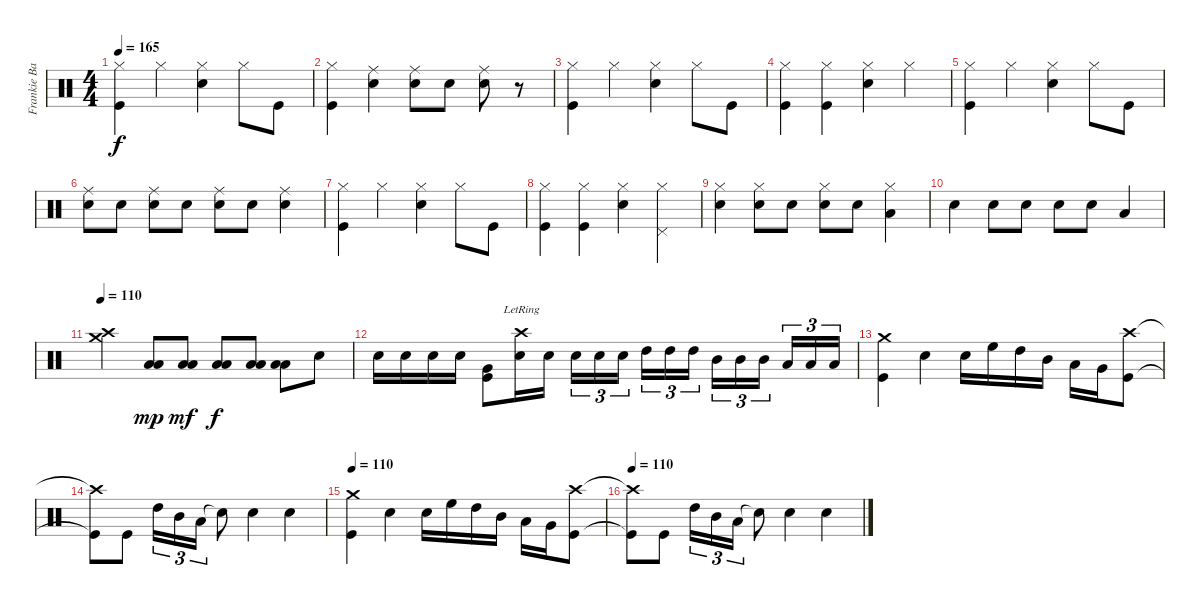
\track ("Frankie Banali/Drums" "Frankie Ba") {instrument percussion}
\staff {score}
\articulation defaults
\ts (4 4)
\tempo 165
\clef neutral
\ks c
("Kick (hit)" "Hi-Hat (closed)").4{dy f} "Hi-Hat (closed)".4 ("Snare (hit) 2" "Hi-Hat (closed)").4 "Hi-Hat (closed)".8 "Kick (hit)".8 |
("Kick (hit)" "Hi-Hat (closed)").4 ("Snare (hit) 2" "Ride (middle)").4 ("Snare (hit) 2" "Ride (middle)").8 "Snare (hit) 2".8 ("Snare (hit) 2" "Ride (middle)").8 r.8 |
("Kick (hit)" "Hi-Hat (closed)").4 "Hi-Hat (closed)".4 ("Snare (hit) 2" "Hi-Hat (closed)").4 "Hi-Hat (closed)".8 "Kick (hit)".8 |
("Kick (hit)" "Hi-Hat (closed)").4 ("Kick (hit)" "Hi-Hat (closed)").4 ("Snare (hit) 2" "Hi-Hat (closed)").4 "Hi-Hat (closed)".4 |
("Kick (hit)" "Hi-Hat (closed)").4 "Hi-Hat (closed)".4 ("Snare (hit) 2" "Hi-Hat (closed)").4 "Hi-Hat (closed)".8 "Kick (hit)".8 |
("Snare (hit) 2" "Ride (middle)").8 "Snare (hit) 2".8 ("Snare (hit) 2" "Ride (middle)").8 "Snare (hit) 2".8 ("Snare (hit) 2" "Ride (middle)").8 "Snare (hit) 2".8 ("Snare (hit) 2" "Ride (middle)").4 |
("Kick (hit)" "Hi-Hat (closed)").4 "Hi-Hat (closed)".4 ("Snare (hit) 2" "Hi-Hat (closed)").4 "Hi-Hat (closed)".8 "Kick (hit)".8 |
("Kick (hit)" "Hi-Hat (closed)").4 ("Kick (hit)" "Hi-Hat (closed)").4 ("Snare (hit) 2" "Hi-Hat (closed)").4 ("Pedal Hi-Hat (hit)" "Hi-Hat (closed)").4 |
("Snare (hit) 2" "Hi-Hat (closed)").4 ("Snare (hit) 2" "Hi-Hat (closed)").8 "Snare (hit) 2".8 ("Snare (hit) 2" "Hi-Hat (closed)").8 "Snare (hit) 2".8 ("Low Tom (hit)" "Hi-Hat (closed)").4 |
"Snare (hit) 2".4 "Snare (hit) 2".8 "Snare (hit) 2".8 "Snare (hit) 2".8 "Snare (hit) 2".8 "Low Tom (hit)".4 |
\tempo 110
("Crash high (hit)" "Crash medium (hit)").4 ("Low Tom (hit)" "Low Tom (hit)").8{dy mp} ("Low Tom (hit)" "Low Tom (hit)").8{dy mf} ("Low Tom (hit)" "Low Tom (hit)").8{dy f} ("Low Tom (hit)" "Low Tom (hit)").8 ("Low Tom (hit)" "Low Tom (hit)").8 "Snare (hit) 2".8 |
"Snare (hit) 2".16 "Snare (hit) 2".16 "Snare (hit) 2".16 "Snare (hit) 2".16 ("Kick (hit)" "Very Low Tom (hit)").8 ("Snare (hit) 2" "Crash high (hit)"{lr}).16 "Snare (hit) 2".16 "Snare (hit) 2".16{tu (3 2)} "Snare (hit) 2".16{tu (3 2)} "Snare (hit) 2".16{tu (3 2)} "High Tom (hit)".16{tu (3 2)} "High Tom (hit)".16{tu (3 2)} "High Tom (hit)".16{tu (3 2)} "Mid Tom (hit)".16{tu (3 2)} "Mid Tom (hit)".16{tu (3 2)} "Mid Tom (hit)".16{tu (3 2)} "Low Tom (hit)".16{tu (3 2)} "Low Tom (hit)".16{tu (3 2)} "Low Tom (hit)".16{tu (3 2)} |
("Crash medium (hit)" "Kick (hit)").4 "Snare (hit) 2".4 "Snare (hit) 2".16 "High Floor Tom (hit)".16 "High Tom (hit)".16 "Mid Tom (hit)".16 "Low Tom (hit)".16 "Very Low Tom (hit)".16 ("Kick (hit)" "Crash high (hit)").8 |
("Kick (hit)"{t} "Crash high (hit)"{t}).8 "Kick (hit)".8 "High Tom (hit)".16{tu (3 2)} "Mid Tom (hit)".16{tu (3 2)} "Low Tom (hit)".16{tu (3 2)} "Snare (hit) 2"{t}.8 "Snare (hit) 2".4 "Snare (hit) 2".4 |
\tempo 110
("Crash medium (hit)" "Kick (hit)").4 "Snare (hit) 2".4 "Snare (hit) 2".16 "High Floor Tom (hit)".16 "High Tom (hit)".16 "Mid Tom (hit)".16 "Low Tom (hit)".16 "Very Low Tom (hit)".16 ("Kick (hit)" "Crash high (hit)").8 |
\tempo 110
("Kick (hit)"{t} "Crash high (hit)"{t}).8 "Kick (hit)".8 "High Tom (hit)".16{tu (3 2)} "Mid Tom (hit)".16{tu (3 2)} "Low Tom (hit)".16{tu (3 2)} "Snare (hit) 2"{t}.8 "Snare (hit) 2".4 "Snare (hit) 2".4
